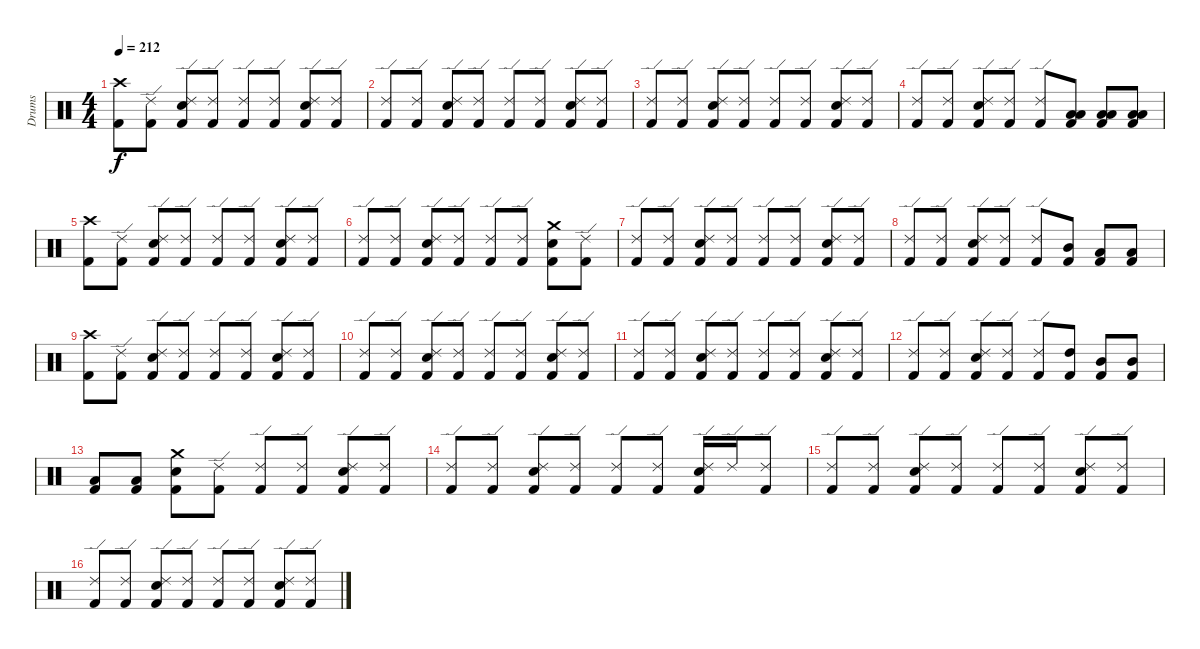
\track ("Drums" "Drums") {instrument percussion}
\staff {score}
\articulation defaults
\ts (4 4)
\tempo 212
\clef neutral
\ks c
("Kick (hit) 2" "Crash high (hit)").8{dy f} ("Kick (hit) 2" "Ride (edge) 2").8 ("Kick (hit) 2" "Snare (hit) 2" "Ride (edge) 2").8 ("Kick (hit) 2" "Ride (edge) 2").8 ("Kick (hit) 2" "Ride (edge) 2").8 ("Kick (hit) 2" "Ride (edge) 2").8 ("Kick (hit) 2" "Snare (hit) 2" "Ride (edge) 2").8 ("Kick (hit) 2" "Ride (edge) 2").8 |
("Kick (hit) 2" "Ride (edge) 2").8 ("Kick (hit) 2" "Ride (edge) 2").8 ("Kick (hit) 2" "Snare (hit) 2" "Ride (edge) 2").8 ("Kick (hit) 2" "Ride (edge) 2").8 ("Kick (hit) 2" "Ride (edge) 2").8 ("Kick (hit) 2" "Ride (edge) 2").8 ("Kick (hit) 2" "Snare (hit) 2" "Ride (edge) 2").8 ("Kick (hit) 2" "Ride (edge) 2").8 |
("Kick (hit) 2" "Ride (edge) 2").8 ("Kick (hit) 2" "Ride (edge) 2").8 ("Kick (hit) 2" "Snare (hit) 2" "Ride (edge) 2").8 ("Kick (hit) 2" "Ride (edge) 2").8 ("Kick (hit) 2" "Ride (edge) 2").8 ("Kick (hit) 2" "Ride (edge) 2").8 ("Kick (hit) 2" "Snare (hit) 2" "Ride (edge) 2").8 ("Kick (hit) 2" "Ride (edge) 2").8 |
("Kick (hit) 2" "Ride (edge) 2").8 ("Kick (hit) 2" "Ride (edge) 2").8 ("Kick (hit) 2" "Snare (hit) 2" "Ride (edge) 2").8 ("Kick (hit) 2" "Ride (edge) 2").8 ("Kick (hit) 2" "Ride (edge) 2").8 ("Kick (hit) 2" "Low Tom (hit)" "Low Tom (hit)").8 ("Kick (hit) 2" "Low Tom (hit)" "Low Tom (hit)").8 ("Kick (hit) 2" "Low Tom (hit)" "Low Tom (hit)").8 |
("Kick (hit) 2" "Crash high (hit)").8 ("Kick (hit) 2" "Ride (edge) 2").8 ("Kick (hit) 2" "Snare (hit) 2" "Ride (edge) 2").8 ("Kick (hit) 2" "Ride (edge) 2").8 ("Kick (hit) 2" "Ride (edge) 2").8 ("Kick (hit) 2" "Ride (edge) 2").8 ("Kick (hit) 2" "Snare (hit) 2" "Ride (edge) 2").8 ("Kick (hit) 2" "Ride (edge) 2").8 |
("Kick (hit) 2" "Ride (edge) 2").8 ("Kick (hit) 2" "Ride (edge) 2").8 ("Kick (hit) 2" "Snare (hit) 2" "Ride (edge) 2").8 ("Kick (hit) 2" "Ride (edge) 2").8 ("Kick (hit) 2" "Ride (edge) 2").8 ("Kick (hit) 2" "Ride (edge) 2").8 ("Kick (hit) 2" "Snare (hit) 2" "Crash medium (hit)").8 ("Kick (hit) 2" "Ride (edge) 2").8 |
("Kick (hit) 2" "Ride (edge) 2").8 ("Kick (hit) 2" "Ride (edge) 2").8 ("Kick (hit) 2" "Snare (hit) 2" "Ride (edge) 2").8 ("Kick (hit) 2" "Ride (edge) 2").8 ("Kick (hit) 2" "Ride (edge) 2").8 ("Kick (hit) 2" "Ride (edge) 2").8 ("Kick (hit) 2" "Snare (hit) 2" "Ride (edge) 2").8 ("Kick (hit) 2" "Ride (edge) 2").8 |
("Kick (hit) 2" "Ride (edge) 2").8 ("Kick (hit) 2" "Ride (edge) 2").8 ("Kick (hit) 2" "Snare (hit) 2" "Ride (edge) 2").8 ("Kick (hit) 2" "Ride (edge) 2").8 ("Kick (hit) 2" "Ride (edge) 2").8 ("Kick (hit) 2" "Mid Tom (hit)").8 ("Kick (hit) 2" "Low Tom (hit)").8 ("Kick (hit) 2" "Low Tom (hit)").8 |
("Kick (hit) 2" "Crash high (hit)").8 ("Kick (hit) 2" "Ride (edge) 2").8 ("Kick (hit) 2" "Snare (hit) 2" "Ride (edge) 2").8 ("Kick (hit) 2" "Ride (edge) 2").8 ("Kick (hit) 2" "Ride (edge) 2").8 ("Kick (hit) 2" "Ride (edge) 2").8 ("Kick (hit) 2" "Snare (hit) 2" "Ride (edge) 2").8 ("Kick (hit) 2" "Ride (edge) 2").8 |
("Kick (hit) 2" "Ride (edge) 2").8 ("Kick (hit) 2" "Ride (edge) 2").8 ("Kick (hit) 2" "Snare (hit) 2" "Ride (edge) 2").8 ("Kick (hit) 2" "Ride (edge) 2").8 ("Kick (hit) 2" "Ride (edge) 2").8 ("Kick (hit) 2" "Ride (edge) 2").8 ("Kick (hit) 2" "Snare (hit) 2" "Ride (edge) 2").8 ("Kick (hit) 2" "Ride (edge) 2").8 |
("Kick (hit) 2" "Ride (edge) 2").8 ("Kick (hit) 2" "Ride (edge) 2").8 ("Kick (hit) 2" "Snare (hit) 2" "Ride (edge) 2").8 ("Kick (hit) 2" "Ride (edge) 2").8 ("Kick (hit) 2" "Ride (edge) 2").8 ("Kick (hit) 2" "Ride (edge) 2").8 ("Kick (hit) 2" "Snare (hit) 2" "Ride (edge) 2").8 ("Kick (hit) 2" "Ride (edge) 2").8 |
("Kick (hit) 2" "Ride (edge) 2").8 ("Kick (hit) 2" "Ride (edge) 2").8 ("Kick (hit) 2" "Snare (hit) 2" "Ride (edge) 2").8 ("Kick (hit) 2" "Ride (edge) 2").8 ("Kick (hit) 2" "Ride (edge) 2").8 ("Kick (hit) 2" "High Tom (hit)").8 ("Kick (hit) 2" "Mid Tom (hit)").8 ("Kick (hit) 2" "Mid Tom (hit)").8 |
("Kick (hit) 2" "Low Tom (hit)").8 ("Kick (hit) 2" "Low Tom (hit)").8 ("Kick (hit) 2" "Snare (hit) 2" "Crash medium (hit)").8 ("Kick (hit) 2" "Ride (edge) 2").8 ("Kick (hit) 2" "Ride (edge) 2").8 ("Kick (hit) 2" "Ride (edge) 2").8 ("Kick (hit) 2" "Snare (hit) 2" "Ride (edge) 2").8 ("Kick (hit) 2" "Ride (edge) 2").8 |
("Kick (hit) 2" "Ride (edge) 2").8 ("Kick (hit) 2" "Ride (edge) 2").8 ("Kick (hit) 2" "Snare (hit) 2" "Ride (edge) 2").8 ("Kick (hit) 2" "Ride (edge) 2").8 ("Kick (hit) 2" "Ride (edge) 2").8 ("Kick (hit) 2" "Ride (edge) 2").8 ("Kick (hit) 2" "Snare (hit) 2" "Ride (edge) 2").16 "Ride (edge) 2".16 ("Kick (hit) 2" "Ride (edge) 2").8 |
("Kick (hit) 2" "Ride (edge) 2").8 ("Kick (hit) 2" "Ride (edge) 2").8 ("Kick (hit) 2" "Snare (hit) 2" "Ride (edge) 2").8 ("Kick (hit) 2" "Ride (edge) 2").8 ("Kick (hit) 2" "Ride (edge) 2").8 ("Kick (hit) 2" "Ride (edge) 2").8 ("Kick (hit) 2" "Snare (hit) 2" "Ride (edge) 2").8 ("Kick (hit) 2" "Ride (edge) 2").8 |
("Kick (hit) 2" "Ride (edge) 2").8 ("Kick (hit) 2" "Ride (edge) 2").8 ("Kick (hit) 2" "Snare (hit) 2" "Ride (edge) 2").8 ("Kick (hit) 2" "Ride (edge) 2").8 ("Kick (hit) 2" "Ride (edge) 2").8 ("Kick (hit) 2" "Ride (edge) 2").8 ("Kick (hit) 2" "Snare (hit) 2" "Ride (edge) 2").8 ("Kick (hit) 2" "Ride (edge) 2").8
